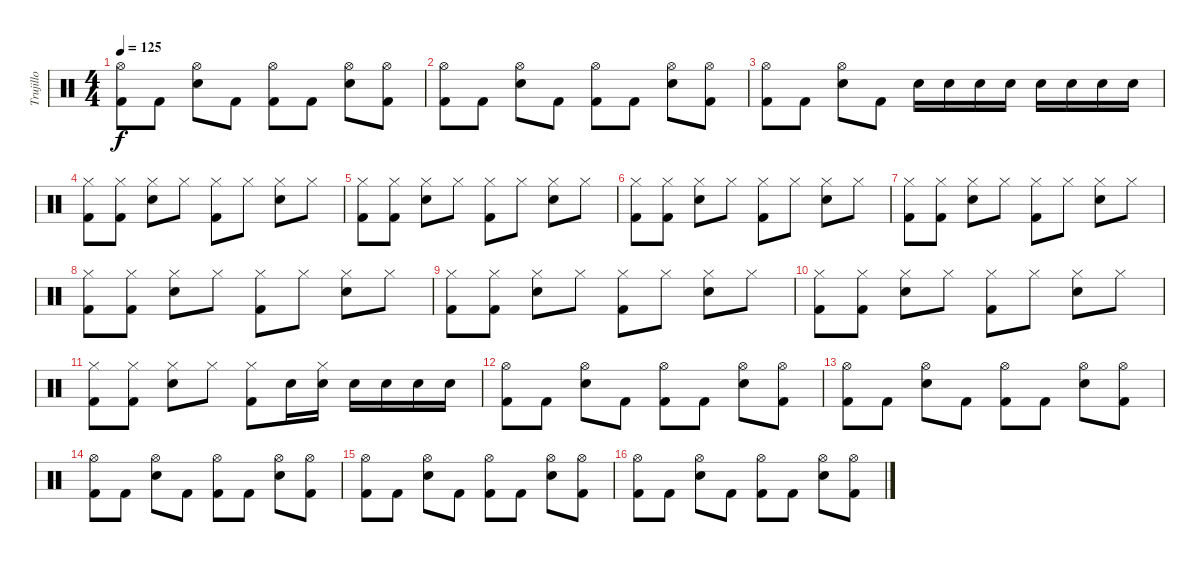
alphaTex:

\track ("Trujillo" "Trujillo") {instrument percussion}
\staff {score}
\articulation defaults
\ts (4 4)
\tempo 125
\clef neutral
\ks c
("Hi-Hat (open)" "Kick (hit) 2").8{dy f} "Kick (hit) 2".8 ("Hi-Hat (open)" "Electric Snare (hit)").8 "Kick (hit) 2".8 ("Hi-Hat (open)" "Kick (hit) 2").8 "Kick (hit) 2".8 ("Hi-Hat (open)" "Electric Snare (hit)").8 ("Hi-Hat (open)" "Kick (hit) 2").8 |
("Hi-Hat (open)" "Kick (hit) 2").8 "Kick (hit) 2".8 ("Hi-Hat (open)" "Electric Snare (hit)").8 "Kick (hit) 2".8 ("Hi-Hat (open)" "Kick (hit) 2").8 "Kick (hit) 2".8 ("Hi-Hat (open)" "Electric Snare (hit)").8 ("Hi-Hat (open)" "Kick (hit) 2").8 |
("Hi-Hat (open)" "Kick (hit) 2").8 "Kick (hit) 2".8 ("Hi-Hat (open)" "Electric Snare (hit)").8 "Kick (hit) 2".8 "Electric Snare (hit)".16 "Electric Snare (hit)".16 "Electric Snare (hit)".16 "Electric Snare (hit)".16 "Electric Snare (hit)".16 "Electric Snare (hit)".16 "Electric Snare (hit)".16 "Electric Snare (hit)".16 |
("Hi-Hat (closed)" "Kick (hit) 2").8 ("Hi-Hat (closed)" "Kick (hit) 2").8 ("Hi-Hat (closed)" "Electric Snare (hit)").8 "Hi-Hat (closed)".8 ("Hi-Hat (closed)" "Kick (hit) 2").8 "Hi-Hat (closed)".8 ("Hi-Hat (closed)" "Electric Snare (hit)").8 "Hi-Hat (closed)".8 |
("Hi-Hat (closed)" "Kick (hit) 2").8 ("Hi-Hat (closed)" "Kick (hit) 2").8 ("Hi-Hat (closed)" "Electric Snare (hit)").8 "Hi-Hat (closed)".8 ("Hi-Hat (closed)" "Kick (hit) 2").8 "Hi-Hat (closed)".8 ("Hi-Hat (closed)" "Electric Snare (hit)").8 "Hi-Hat (closed)".8 |
("Hi-Hat (closed)" "Kick (hit) 2").8 ("Hi-Hat (closed)" "Kick (hit) 2").8 ("Hi-Hat (closed)" "Electric Snare (hit)").8 "Hi-Hat (closed)".8 ("Hi-Hat (closed)" "Kick (hit) 2").8 "Hi-Hat (closed)".8 ("Hi-Hat (closed)" "Electric Snare (hit)").8 "Hi-Hat (closed)".8 |
("Hi-Hat (closed)" "Kick (hit) 2").8 ("Hi-Hat (closed)" "Kick (hit) 2").8 ("Hi-Hat (closed)" "Electric Snare (hit)").8 "Hi-Hat (closed)".8 ("Hi-Hat (closed)" "Kick (hit) 2").8 "Hi-Hat (closed)".8 ("Hi-Hat (closed)" "Electric Snare (hit)").8 "Hi-Hat (closed)".8 |
("Hi-Hat (closed)" "Kick (hit) 2").8 ("Hi-Hat (closed)" "Kick (hit) 2").8 ("Hi-Hat (closed)" "Electric Snare (hit)").8 "Hi-Hat (closed)".8 ("Hi-Hat (closed)" "Kick (hit) 2").8 "Hi-Hat (closed)".8 ("Hi-Hat (closed)" "Electric Snare (hit)").8 "Hi-Hat (closed)".8 |
("Hi-Hat (closed)" "Kick (hit) 2").8 ("Hi-Hat (closed)" "Kick (hit) 2").8 ("Hi-Hat (closed)" "Electric Snare (hit)").8 "Hi-Hat (closed)".8 ("Hi-Hat (closed)" "Kick (hit) 2").8 "Hi-Hat (closed)".8 ("Hi-Hat (closed)" "Electric Snare (hit)").8 "Hi-Hat (closed)".8 |
("Hi-Hat (closed)" "Kick (hit) 2").8 ("Hi-Hat (closed)" "Kick (hit) 2").8 ("Hi-Hat (closed)" "Electric Snare (hit)").8 "Hi-Hat (closed)".8 ("Hi-Hat (closed)" "Kick (hit) 2").8 "Hi-Hat (closed)".8 ("Hi-Hat (closed)" "Electric Snare (hit)").8 "Hi-Hat (closed)".8 |
("Hi-Hat (closed)" "Kick (hit) 2").8 ("Hi-Hat (closed)" "Kick (hit) 2").8 ("Hi-Hat (closed)" "Electric Snare (hit)").8 "Hi-Hat (closed)".8 ("Hi-Hat (closed)" "Kick (hit) 2").8 "Electric Snare (hit)".16 ("Hi-Hat (closed)"{x} "Electric Snare (hit)").16 "Electric Snare (hit)".16 "Electric Snare (hit)".16 "Electric Snare (hit)".16 "Electric Snare (hit)".16 |
("Hi-Hat (open)" "Kick (hit) 2").8 "Kick (hit) 2".8 ("Hi-Hat (open)" "Electric Snare (hit)").8 "Kick (hit) 2".8 ("Hi-Hat (open)" "Kick (hit) 2").8 "Kick (hit) 2".8 ("Hi-Hat (open)" "Electric Snare (hit)").8 ("Hi-Hat (open)" "Kick (hit) 2").8 |
("Hi-Hat (open)" "Kick (hit) 2").8 "Kick (hit) 2".8 ("Hi-Hat (open)" "Electric Snare (hit)").8 "Kick (hit) 2".8 ("Hi-Hat (open)" "Kick (hit) 2").8 "Kick (hit) 2".8 ("Hi-Hat (open)" "Electric Snare (hit)").8 ("Hi-Hat (open)" "Kick (hit) 2").8 |
("Hi-Hat (open)" "Kick (hit) 2").8 "Kick (hit) 2".8 ("Hi-Hat (open)" "Electric Snare (hit)").8 "Kick (hit) 2".8 ("Hi-Hat (open)" "Kick (hit) 2").8 "Kick (hit) 2".8 ("Hi-Hat (open)" "Electric Snare (hit)").8 ("Hi-Hat (open)" "Kick (hit) 2").8 |
("Hi-Hat (open)" "Kick (hit) 2").8 "Kick (hit) 2".8 ("Hi-Hat (open)" "Electric Snare (hit)").8 "Kick (hit) 2".8 ("Hi-Hat (open)" "Kick (hit) 2").8 "Kick (hit) 2".8 ("Hi-Hat (open)" "Electric Snare (hit)").8 ("Hi-Hat (open)" "Kick (hit) 2").8 |
("Hi-Hat (open)" "Kick (hit) 2").8 "Kick (hit) 2".8 ("Hi-Hat (open)" "Electric Snare (hit)").8 "Kick (hit) 2".8 ("Hi-Hat (open)" "Kick (hit) 2").8 "Kick (hit) 2".8 ("Hi-Hat (open)" "Electric Snare (hit)").8 ("Hi-Hat (open)" "Kick (hit) 2").8
